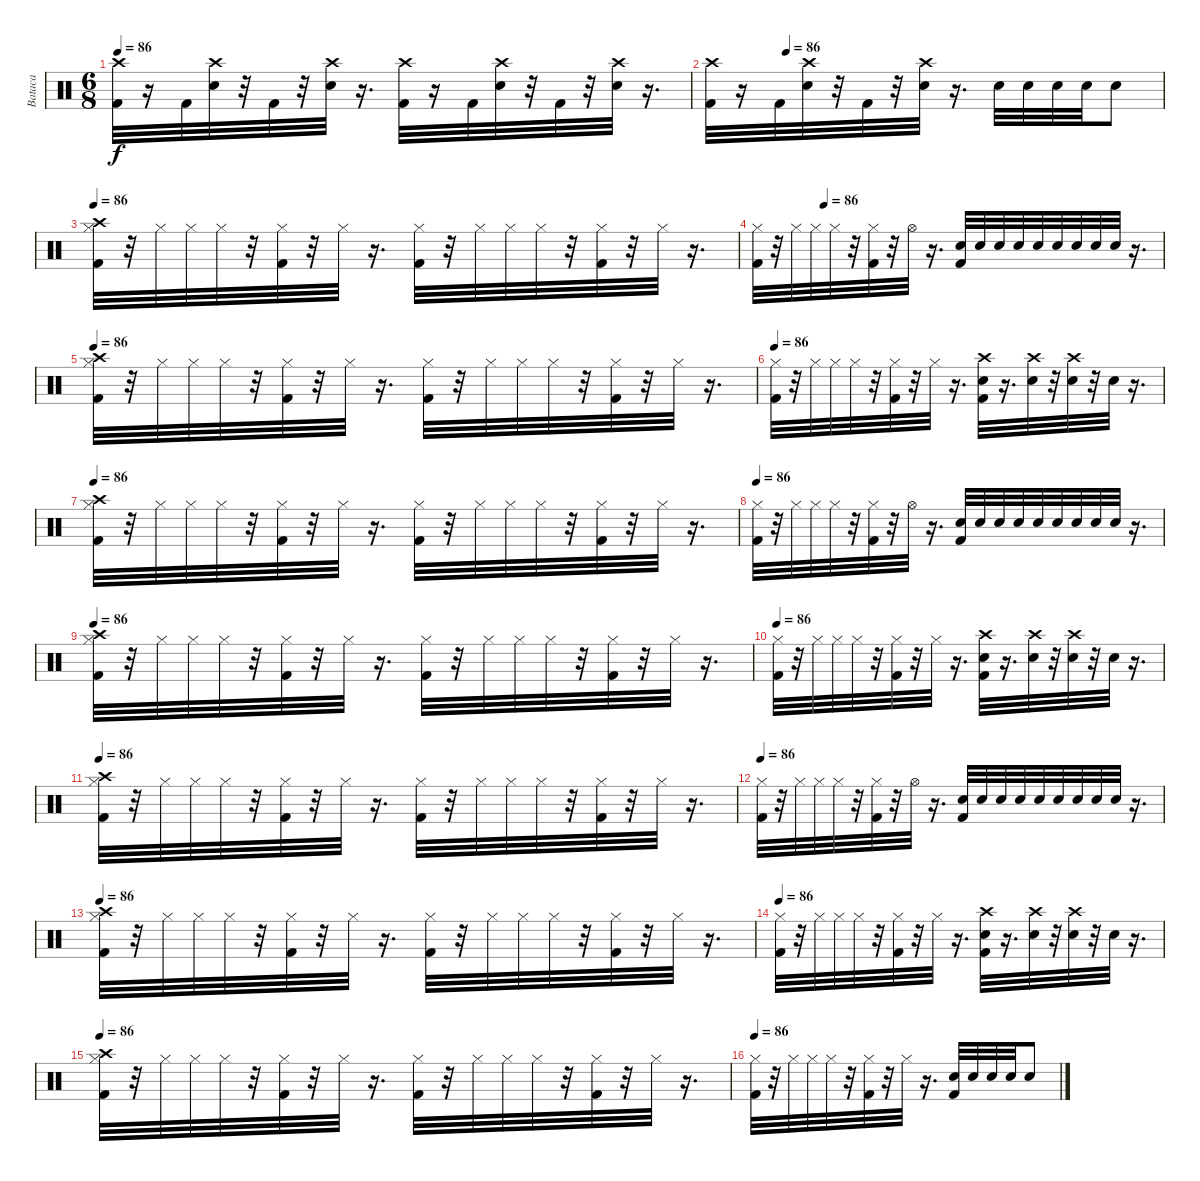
\track ("Bataca" "Bataca") {instrument percussion}
\staff {score}
\articulation defaults
\ts (6 8)
\tempo 86
\clef neutral
\ks c
("Crash high (hit)" "Kick (hit) 2").32{dy f} r.16 "Kick (hit) 2".32 ("Crash high (hit)" "Snare (hit) 2").32 r.32 "Kick (hit) 2".32 r.32 ("Crash high (hit)" "Snare (hit) 2").32 r.16{d} ("Crash high (hit)" "Kick (hit) 2").32 r.16 "Kick (hit) 2".32 ("Crash high (hit)" "Snare (hit) 2").32 r.32 "Kick (hit) 2".32 r.32 ("Crash high (hit)" "Snare (hit) 2").32 r.16{d} |
\tempo (86 0.16666666666666666)
("Crash high (hit)" "Kick (hit) 2").32 r.16 "Kick (hit) 2".32 ("Crash high (hit)" "Snare (hit) 2").32 r.32 "Kick (hit) 2".32 r.32 ("Crash high (hit)" "Snare (hit) 2").32 r.16{d} "Snare (hit) 2".32 "Snare (hit) 2".32 "Snare (hit) 2".32 "Snare (hit) 2".32 "Snare (hit) 2".8 |
\tempo 86
("Crash high (hit)" "Hi-Hat (closed)" "Kick (hit) 2").32 r.32 "Hi-Hat (closed)".32 "Hi-Hat (closed)".32 "Hi-Hat (closed)".32 r.32 ("Hi-Hat (closed)" "Kick (hit) 2").32 r.32 "Hi-Hat (closed)".32 r.16{d} ("Hi-Hat (closed)" "Kick (hit) 2").32 r.32 "Hi-Hat (closed)".32 "Hi-Hat (closed)".32 "Hi-Hat (closed)".32 r.32 ("Hi-Hat (closed)" "Kick (hit) 2").32 r.32 "Hi-Hat (closed)".32 r.16{d} |
\tempo (86 0.16666666666666666)
("Hi-Hat (closed)" "Kick (hit) 2").32 r.32 "Hi-Hat (closed)".32 "Hi-Hat (closed)".32 "Hi-Hat (closed)".32 r.32 ("Hi-Hat (closed)" "Kick (hit) 2").32 r.32 "Hi-Hat (open)".32 r.16{d} ("Snare (hit) 2" "Kick (hit) 2").32 "Snare (hit) 2".32 "Snare (hit) 2".32 "Snare (hit) 2".32 "Snare (hit) 2".32 "Snare (hit) 2".32 "Snare (hit) 2".32 "Snare (hit) 2".32 "Snare (hit) 2".32 r.16{d} |
\tempo 86
("Crash high (hit)" "Hi-Hat (closed)" "Kick (hit) 2").32 r.32 "Hi-Hat (closed)".32 "Hi-Hat (closed)".32 "Hi-Hat (closed)".32 r.32 ("Hi-Hat (closed)" "Kick (hit) 2").32 r.32 "Hi-Hat (closed)".32 r.16{d} ("Hi-Hat (closed)" "Kick (hit) 2").32 r.32 "Hi-Hat (closed)".32 "Hi-Hat (closed)".32 "Hi-Hat (closed)".32 r.32 ("Hi-Hat (closed)" "Kick (hit) 2").32 r.32 "Hi-Hat (closed)".32 r.16{d} |
\tempo 86
("Hi-Hat (closed)" "Kick (hit) 2").32 r.32 "Hi-Hat (closed)".32 "Hi-Hat (closed)".32 "Hi-Hat (closed)".32 r.32 ("Hi-Hat (closed)" "Kick (hit) 2").32 r.32 "Hi-Hat (closed)".32 r.16{d} ("Crash high (hit)" "Snare (hit) 2" "Kick (hit) 2").32 r.16{d} ("Crash high (hit)" "Snare (hit) 2").32 r.32 ("Crash high (hit)" "Snare (hit) 2").32 r.32 "Snare (hit) 2".32 r.16{d} |
\tempo 86
("Crash high (hit)" "Hi-Hat (closed)" "Kick (hit) 2").32 r.32 "Hi-Hat (closed)".32 "Hi-Hat (closed)".32 "Hi-Hat (closed)".32 r.32 ("Hi-Hat (closed)" "Kick (hit) 2").32 r.32 "Hi-Hat (closed)".32 r.16{d} ("Hi-Hat (closed)" "Kick (hit) 2").32 r.32 "Hi-Hat (closed)".32 "Hi-Hat (closed)".32 "Hi-Hat (closed)".32 r.32 ("Hi-Hat (closed)" "Kick (hit) 2").32 r.32 "Hi-Hat (closed)".32 r.16{d} |
\tempo 86
("Hi-Hat (closed)" "Kick (hit) 2").32 r.32 "Hi-Hat (closed)".32 "Hi-Hat (closed)".32 "Hi-Hat (closed)".32 r.32 ("Hi-Hat (closed)" "Kick (hit) 2").32 r.32 "Hi-Hat (open)".32 r.16{d} ("Snare (hit) 2" "Kick (hit) 2").32 "Snare (hit) 2".32 "Snare (hit) 2".32 "Snare (hit) 2".32 "Snare (hit) 2".32 "Snare (hit) 2".32 "Snare (hit) 2".32 "Snare (hit) 2".32 "Snare (hit) 2".32 r.16{d} |
\tempo 86
("Crash high (hit)" "Hi-Hat (closed)" "Kick (hit) 2").32 r.32 "Hi-Hat (closed)".32 "Hi-Hat (closed)".32 "Hi-Hat (closed)".32 r.32 ("Hi-Hat (closed)" "Kick (hit) 2").32 r.32 "Hi-Hat (closed)".32 r.16{d} ("Hi-Hat (closed)" "Kick (hit) 2").32 r.32 "Hi-Hat (closed)".32 "Hi-Hat (closed)".32 "Hi-Hat (closed)".32 r.32 ("Hi-Hat (closed)" "Kick (hit) 2").32 r.32 "Hi-Hat (closed)".32 r.16{d} |
\tempo 86
("Hi-Hat (closed)" "Kick (hit) 2").32 r.32 "Hi-Hat (closed)".32 "Hi-Hat (closed)".32 "Hi-Hat (closed)".32 r.32 ("Hi-Hat (closed)" "Kick (hit) 2").32 r.32 "Hi-Hat (closed)".32 r.16{d} ("Crash high (hit)" "Snare (hit) 2" "Kick (hit) 2").32 r.16{d} ("Crash high (hit)" "Snare (hit) 2").32 r.32 ("Crash high (hit)" "Snare (hit) 2").32 r.32 "Snare (hit) 2".32 r.16{d} |
\tempo 86
("Crash high (hit)" "Hi-Hat (closed)" "Kick (hit) 2").32 r.32 "Hi-Hat (closed)".32 "Hi-Hat (closed)".32 "Hi-Hat (closed)".32 r.32 ("Hi-Hat (closed)" "Kick (hit) 2").32 r.32 "Hi-Hat (closed)".32 r.16{d} ("Hi-Hat (closed)" "Kick (hit) 2").32 r.32 "Hi-Hat (closed)".32 "Hi-Hat (closed)".32 "Hi-Hat (closed)".32 r.32 ("Hi-Hat (closed)" "Kick (hit) 2").32 r.32 "Hi-Hat (closed)".32 r.16{d} |
\tempo 86
("Hi-Hat (closed)" "Kick (hit) 2").32 r.32 "Hi-Hat (closed)".32 "Hi-Hat (closed)".32 "Hi-Hat (closed)".32 r.32 ("Hi-Hat (closed)" "Kick (hit) 2").32 r.32 "Hi-Hat (open)".32 r.16{d} ("Snare (hit) 2" "Kick (hit) 2").32 "Snare (hit) 2".32 "Snare (hit) 2".32 "Snare (hit) 2".32 "Snare (hit) 2".32 "Snare (hit) 2".32 "Snare (hit) 2".32 "Snare (hit) 2".32 "Snare (hit) 2".32 r.16{d} |
\tempo 86
("Crash high (hit)" "Hi-Hat (closed)" "Kick (hit) 2").32 r.32 "Hi-Hat (closed)".32 "Hi-Hat (closed)".32 "Hi-Hat (closed)".32 r.32 ("Hi-Hat (closed)" "Kick (hit) 2").32 r.32 "Hi-Hat (closed)".32 r.16{d} ("Hi-Hat (closed)" "Kick (hit) 2").32 r.32 "Hi-Hat (closed)".32 "Hi-Hat (closed)".32 "Hi-Hat (closed)".32 r.32 ("Hi-Hat (closed)" "Kick (hit) 2").32 r.32 "Hi-Hat (closed)".32 r.16{d} |
\tempo 86
("Hi-Hat (closed)" "Kick (hit) 2").32 r.32 "Hi-Hat (closed)".32 "Hi-Hat (closed)".32 "Hi-Hat (closed)".32 r.32 ("Hi-Hat (closed)" "Kick (hit) 2").32 r.32 "Hi-Hat (closed)".32 r.16{d} ("Crash high (hit)" "Snare (hit) 2" "Kick (hit) 2").32 r.16{d} ("Crash high (hit)" "Snare (hit) 2").32 r.32 ("Crash high (hit)" "Snare (hit) 2").32 r.32 "Snare (hit) 2".32 r.16{d} |
\tempo 86
("Crash high (hit)" "Hi-Hat (closed)" "Kick (hit) 2").32 r.32 "Hi-Hat (closed)".32 "Hi-Hat (closed)".32 "Hi-Hat (closed)".32 r.32 ("Hi-Hat (closed)" "Kick (hit) 2").32 r.32 "Hi-Hat (closed)".32 r.16{d} ("Hi-Hat (closed)" "Kick (hit) 2").32 r.32 "Hi-Hat (closed)".32 "Hi-Hat (closed)".32 "Hi-Hat (closed)".32 r.32 ("Hi-Hat (closed)" "Kick (hit) 2").32 r.32 "Hi-Hat (closed)".32 r.16{d} |
\tempo 86
("Hi-Hat (closed)" "Kick (hit) 2").32 r.32 "Hi-Hat (closed)".32 "Hi-Hat (closed)".32 "Hi-Hat (closed)".32 r.32 ("Hi-Hat (closed)" "Kick (hit) 2").32 r.32 "Hi-Hat (closed)".32 r.16{d} ("Snare (hit) 2" "Kick (hit) 2").32 "Snare (hit) 2".32 "Snare (hit) 2".32 "Snare (hit) 2".32 "Snare (hit) 2".8
